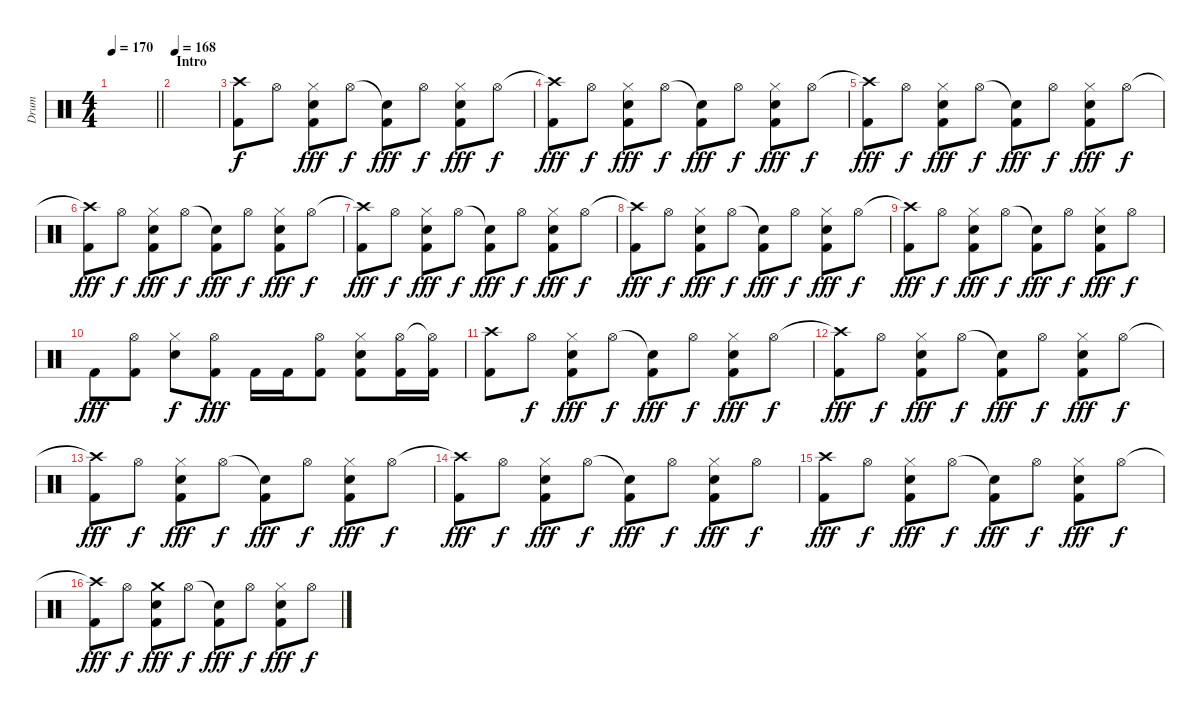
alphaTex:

\track ("Drum" "Drum") {instrument percussion}
\staff {score}
\articulation defaults
\ts (4 4)
\tempo 170
\clef neutral
\barLineRight lightlight
\ks c
|
\section ("" "Intro")
\tempo 168
|
("Crash high (hit)" "Kick (hit) 2").8 "Hi-Hat (open)".8{dy f} ("Hi-Hat (closed)" "Snare (hit) 2" "Kick (hit) 2").8{dy fff} "Hi-Hat (open)".8{dy f} ("Snare (hit)"{t} "Kick (hit) 2").8{dy fff} "Hi-Hat (open)".8{dy f} ("Hi-Hat (closed)" "Snare (hit) 2" "Kick (hit) 2").8{dy fff} "Hi-Hat (open)".8{dy f} |
("Crash high (hit)"{t} "Kick (hit) 2").8{dy fff} "Hi-Hat (open)".8{dy f} ("Hi-Hat (closed)" "Snare (hit) 2" "Kick (hit) 2").8{dy fff} "Hi-Hat (open)".8{dy f} ("Snare (hit)"{t} "Kick (hit) 2").8{dy fff} "Hi-Hat (open)".8{dy f} ("Hi-Hat (closed)" "Snare (hit) 2" "Kick (hit) 2").8{dy fff} "Hi-Hat (open)".8{dy f} |
("Crash high (hit)"{t} "Kick (hit) 2").8{dy fff} "Hi-Hat (open)".8{dy f} ("Hi-Hat (closed)" "Snare (hit) 2" "Kick (hit) 2").8{dy fff} "Hi-Hat (open)".8{dy f} ("Snare (hit)"{t} "Kick (hit) 2").8{dy fff} "Hi-Hat (open)".8{dy f} ("Hi-Hat (closed)" "Snare (hit) 2" "Kick (hit) 2").8{dy fff} "Hi-Hat (open)".8{dy f} |
("Crash high (hit)"{t} "Kick (hit) 2").8{dy fff} "Hi-Hat (open)".8{dy f} ("Hi-Hat (closed)" "Snare (hit) 2" "Kick (hit) 2").8{dy fff} "Hi-Hat (open)".8{dy f} ("Snare (hit)"{t} "Kick (hit) 2").8{dy fff} "Hi-Hat (open)".8{dy f} ("Hi-Hat (closed)" "Snare (hit) 2" "Kick (hit) 2").8{dy fff} "Hi-Hat (open)".8{dy f} |
("Crash high (hit)"{t} "Kick (hit) 2").8{dy fff} "Hi-Hat (open)".8{dy f} ("Hi-Hat (closed)" "Snare (hit) 2" "Kick (hit) 2").8{dy fff} "Hi-Hat (open)".8{dy f} ("Snare (hit)"{t} "Kick (hit) 2").8{dy fff} "Hi-Hat (open)".8{dy f} ("Hi-Hat (closed)" "Snare (hit) 2" "Kick (hit) 2").8{dy fff} "Hi-Hat (open)".8{dy f} |
("Crash high (hit)"{t} "Kick (hit) 2").8{dy fff} "Hi-Hat (open)".8{dy f} ("Hi-Hat (closed)" "Snare (hit) 2" "Kick (hit) 2").8{dy fff} "Hi-Hat (open)".8{dy f} ("Snare (hit)"{t} "Kick (hit) 2").8{dy fff} "Hi-Hat (open)".8{dy f} ("Hi-Hat (closed)" "Snare (hit) 2" "Kick (hit) 2").8{dy fff} "Hi-Hat (open)".8{dy f} |
("Crash high (hit)"{t} "Kick (hit) 2").8{dy fff} "Hi-Hat (open)".8{dy f} ("Hi-Hat (closed)" "Snare (hit) 2" "Kick (hit) 2").8{dy fff} "Hi-Hat (open)".8{dy f} ("Snare (hit)"{t} "Kick (hit) 2").8{dy fff} "Hi-Hat (open)".8{dy f} ("Hi-Hat (closed)" "Snare (hit) 2" "Kick (hit) 2").8{dy fff} "Hi-Hat (open)".8{dy f} |
"Kick (hit) 2".8{dy fff} ("Hi-Hat (open)" "Kick (hit) 2").8 ("Hi-Hat (closed)" "Snare (hit) 2").8{dy f} ("Hi-Hat (open)" "Kick (hit) 2").8{dy fff} "Kick (hit) 2".16 "Kick (hit) 2".16 ("Hi-Hat (open)" "Kick (hit) 2").8 ("Hi-Hat (closed)" "Snare (hit) 2" "Kick (hit) 2").8 ("Hi-Hat (open)" "Kick (hit) 2").16 ("Hi-Hat (open)"{t} "Kick (hit) 2").16 |
("Crash high (hit)" "Kick (hit) 2").8 "Hi-Hat (open)".8{dy f} ("Hi-Hat (closed)" "Snare (hit) 2" "Kick (hit) 2").8{dy fff} "Hi-Hat (open)".8{dy f} ("Snare (hit)"{t} "Kick (hit) 2").8{dy fff} "Hi-Hat (open)".8{dy f} ("Hi-Hat (closed)" "Snare (hit) 2" "Kick (hit) 2").8{dy fff} "Hi-Hat (open)".8{dy f} |
("Crash high (hit)"{t} "Kick (hit) 2").8{dy fff} "Hi-Hat (open)".8{dy f} ("Hi-Hat (closed)" "Snare (hit) 2" "Kick (hit) 2").8{dy fff} "Hi-Hat (open)".8{dy f} ("Snare (hit)"{t} "Kick (hit) 2").8{dy fff} "Hi-Hat (open)".8{dy f} ("Hi-Hat (closed)" "Snare (hit) 2" "Kick (hit) 2").8{dy fff} "Hi-Hat (open)".8{dy f} |
("Crash high (hit)"{t} "Kick (hit) 2").8{dy fff} "Hi-Hat (open)".8{dy f} ("Hi-Hat (closed)" "Snare (hit) 2" "Kick (hit) 2").8{dy fff} "Hi-Hat (open)".8{dy f} ("Snare (hit)"{t} "Kick (hit) 2").8{dy fff} "Hi-Hat (open)".8{dy f} ("Hi-Hat (closed)" "Snare (hit) 2" "Kick (hit) 2").8{dy fff} "Hi-Hat (open)".8{dy f} |
("Crash high (hit)"{t} "Kick (hit) 2").8{dy fff} "Hi-Hat (open)".8{dy f} ("Hi-Hat (closed)" "Snare (hit) 2" "Kick (hit) 2").8{dy fff} "Hi-Hat (open)".8{dy f} ("Snare (hit)"{t} "Kick (hit) 2").8{dy fff} "Hi-Hat (open)".8{dy f} ("Hi-Hat (closed)" "Snare (hit) 2" "Kick (hit) 2").8{dy fff} "Hi-Hat (open)".8{dy f} |
("Crash high (hit)" "Kick (hit) 2").8{dy fff} "Hi-Hat (open)".8{dy f} ("Hi-Hat (closed)" "Snare (hit) 2" "Kick (hit) 2").8{dy fff} "Hi-Hat (open)".8{dy f} ("Snare (hit)"{t} "Kick (hit) 2").8{dy fff} "Hi-Hat (open)".8{dy f} ("Hi-Hat (closed)" "Snare (hit) 2" "Kick (hit) 2").8{dy fff} "Hi-Hat (open)".8{dy f} |
("Crash high (hit)"{t} "Kick (hit) 2").8{dy fff} "Hi-Hat (open)".8{dy f} ("Crash medium (hit)" "Snare (hit) 2" "Kick (hit) 2").8{dy fff} "Hi-Hat (open)".8{dy f} ("Snare (hit)"{t} "Kick (hit) 2").8{dy fff} "Hi-Hat (open)".8{dy f} ("Hi-Hat (closed)" "Snare (hit) 2" "Kick (hit) 2").8{dy fff} "Hi-Hat (open)".8{dy f}
